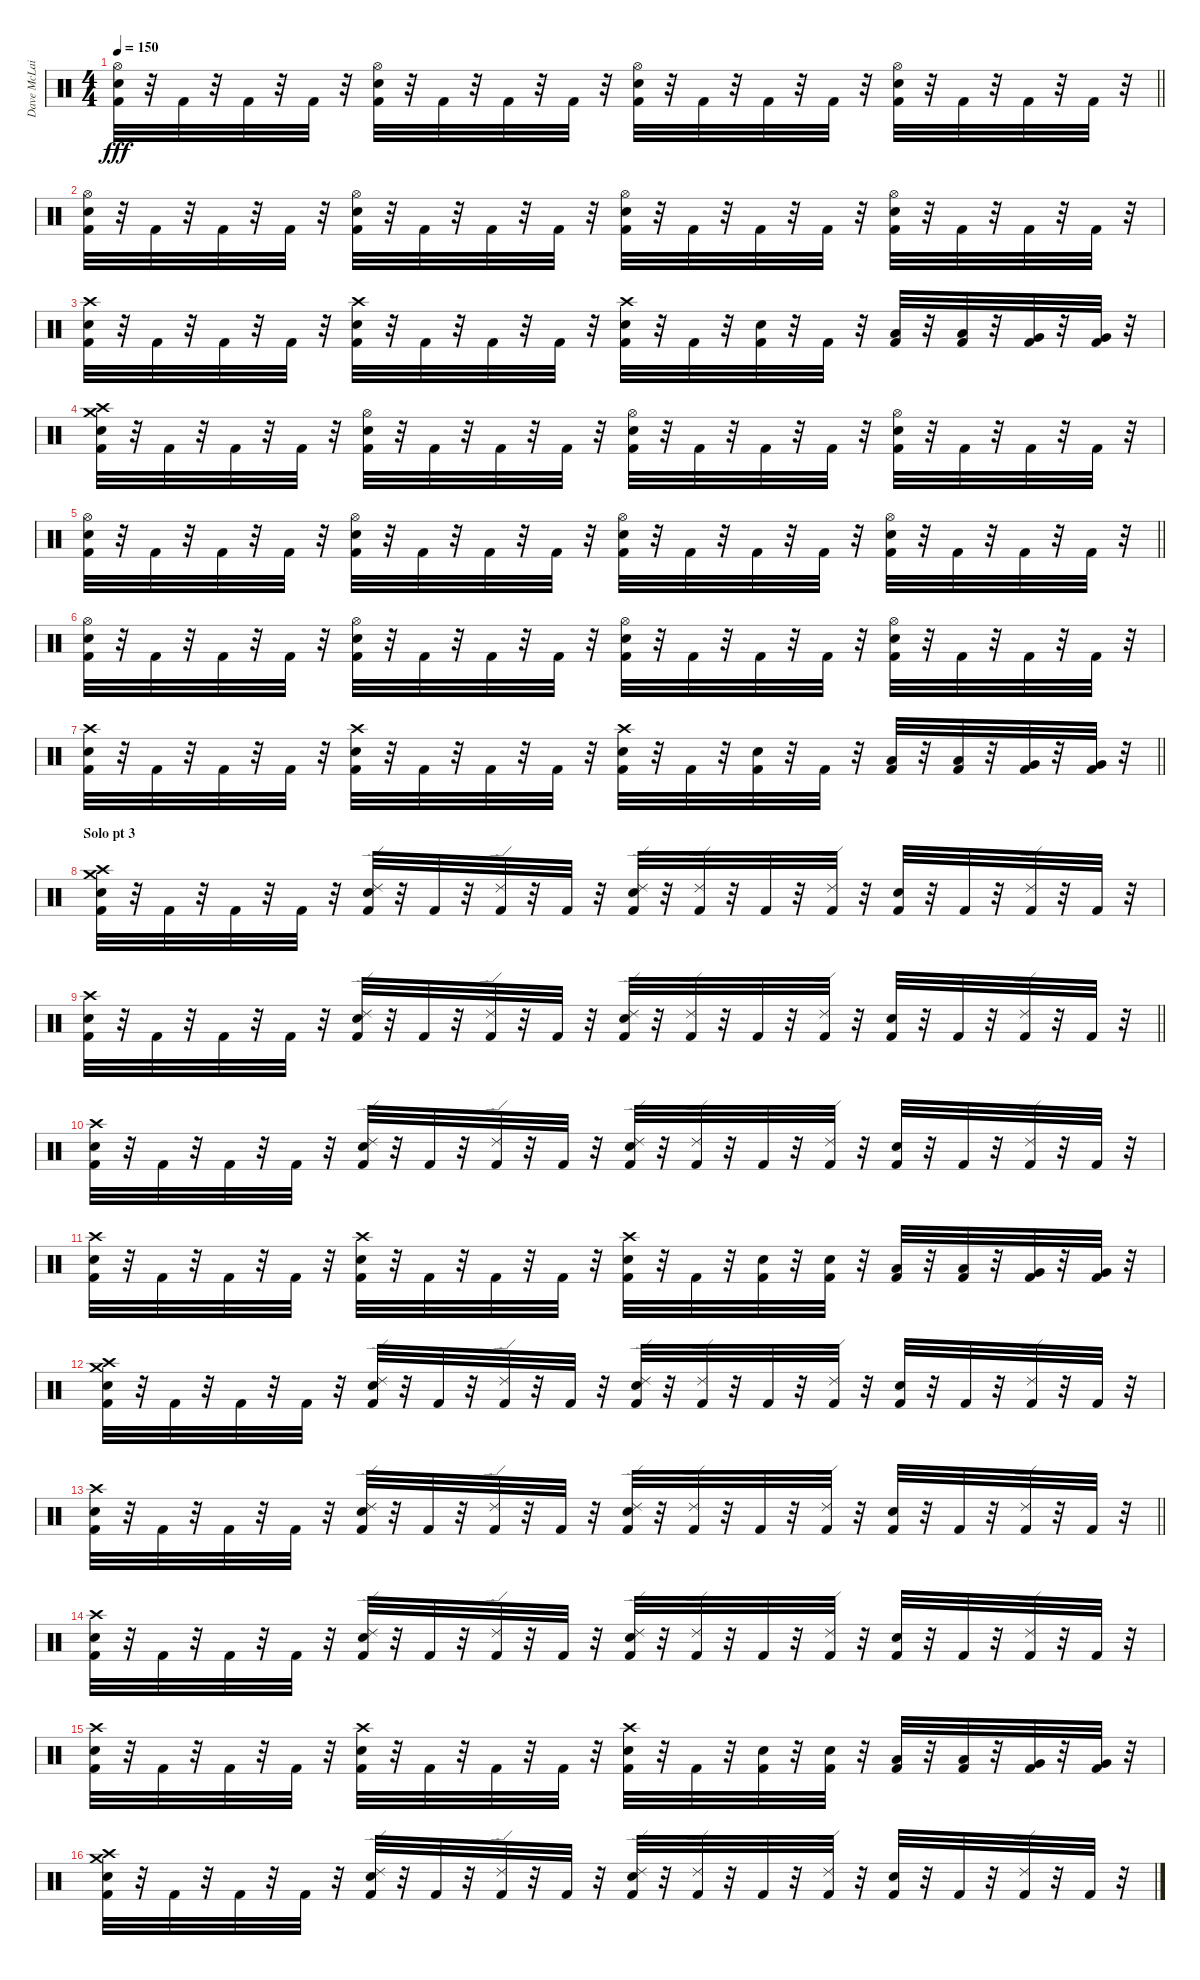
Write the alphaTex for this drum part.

\track ("Dave McLain" "Dave McLai") {instrument percussion}
\staff {score}
\articulation defaults
\ts (4 4)
\tempo 150
\clef neutral
\barLineRight lightlight
\ks c
("Hi-Hat (open)" "Snare (hit) 2" "Kick (hit) 2").32{dy fff} r.32 "Kick (hit) 2".32 r.32 "Kick (hit) 2".32 r.32 "Kick (hit) 2".32 r.32 ("Hi-Hat (open)" "Snare (hit) 2" "Kick (hit) 2").32 r.32 "Kick (hit) 2".32 r.32 "Kick (hit) 2".32 r.32 "Kick (hit) 2".32 r.32 ("Hi-Hat (open)" "Snare (hit) 2" "Kick (hit) 2").32 r.32 "Kick (hit) 2".32 r.32 "Kick (hit) 2".32 r.32 "Kick (hit) 2".32 r.32 ("Hi-Hat (open)" "Snare (hit) 2" "Kick (hit) 2").32 r.32 "Kick (hit) 2".32 r.32 "Kick (hit) 2".32 r.32 "Kick (hit) 2".32 r.32 |
("Hi-Hat (open)" "Snare (hit) 2" "Kick (hit) 2").32 r.32 "Kick (hit) 2".32 r.32 "Kick (hit) 2".32 r.32 "Kick (hit) 2".32 r.32 ("Hi-Hat (open)" "Snare (hit) 2" "Kick (hit) 2").32 r.32 "Kick (hit) 2".32 r.32 "Kick (hit) 2".32 r.32 "Kick (hit) 2".32 r.32 ("Hi-Hat (open)" "Snare (hit) 2" "Kick (hit) 2").32 r.32 "Kick (hit) 2".32 r.32 "Kick (hit) 2".32 r.32 "Kick (hit) 2".32 r.32 ("Hi-Hat (open)" "Snare (hit) 2" "Kick (hit) 2").32 r.32 "Kick (hit) 2".32 r.32 "Kick (hit) 2".32 r.32 "Kick (hit) 2".32 r.32 |
("Crash high (hit)" "Snare (hit) 2" "Kick (hit) 2").32 r.32 "Kick (hit) 2".32 r.32 "Kick (hit) 2".32 r.32 "Kick (hit) 2".32 r.32 ("Crash high (hit)" "Snare (hit) 2" "Kick (hit) 2").32 r.32 "Kick (hit) 2".32 r.32 "Kick (hit) 2".32 r.32 "Kick (hit) 2".32 r.32 ("Snare (hit) 2" "Crash high (hit)" "Kick (hit) 2").32 r.32 "Kick (hit) 2".32 r.32 ("Snare (hit) 2" "Kick (hit) 2").32 r.32 "Kick (hit) 2".32 r.32 ("Low Tom (hit)" "Kick (hit) 2").32 r.32 ("Low Tom (hit)" "Kick (hit) 2").32 r.32 ("Very Low Tom (hit)" "Kick (hit) 2").32 r.32 ("Very Low Tom (hit)" "Kick (hit) 2").32 r.32 |
("Snare (hit) 2" "Crash high (hit)" "Crash medium (hit)" "Kick (hit) 2").32 r.32 "Kick (hit) 2".32 r.32 "Kick (hit) 2".32 r.32 "Kick (hit) 2".32 r.32 ("Hi-Hat (open)" "Snare (hit) 2" "Kick (hit) 2").32 r.32 "Kick (hit) 2".32 r.32 "Kick (hit) 2".32 r.32 "Kick (hit) 2".32 r.32 ("Hi-Hat (open)" "Snare (hit) 2" "Kick (hit) 2").32 r.32 "Kick (hit) 2".32 r.32 "Kick (hit) 2".32 r.32 "Kick (hit) 2".32 r.32 ("Hi-Hat (open)" "Snare (hit) 2" "Kick (hit) 2").32 r.32 "Kick (hit) 2".32 r.32 "Kick (hit) 2".32 r.32 "Kick (hit) 2".32 r.32 |
\barLineRight lightlight
("Hi-Hat (open)" "Snare (hit) 2" "Kick (hit) 2").32 r.32 "Kick (hit) 2".32 r.32 "Kick (hit) 2".32 r.32 "Kick (hit) 2".32 r.32 ("Hi-Hat (open)" "Snare (hit) 2" "Kick (hit) 2").32 r.32 "Kick (hit) 2".32 r.32 "Kick (hit) 2".32 r.32 "Kick (hit) 2".32 r.32 ("Hi-Hat (open)" "Snare (hit) 2" "Kick (hit) 2").32 r.32 "Kick (hit) 2".32 r.32 "Kick (hit) 2".32 r.32 "Kick (hit) 2".32 r.32 ("Hi-Hat (open)" "Snare (hit) 2" "Kick (hit) 2").32 r.32 "Kick (hit) 2".32 r.32 "Kick (hit) 2".32 r.32 "Kick (hit) 2".32 r.32 |
("Hi-Hat (open)" "Snare (hit) 2" "Kick (hit) 2").32 r.32 "Kick (hit) 2".32 r.32 "Kick (hit) 2".32 r.32 "Kick (hit) 2".32 r.32 ("Hi-Hat (open)" "Snare (hit) 2" "Kick (hit) 2").32 r.32 "Kick (hit) 2".32 r.32 "Kick (hit) 2".32 r.32 "Kick (hit) 2".32 r.32 ("Hi-Hat (open)" "Snare (hit) 2" "Kick (hit) 2").32 r.32 "Kick (hit) 2".32 r.32 "Kick (hit) 2".32 r.32 "Kick (hit) 2".32 r.32 ("Hi-Hat (open)" "Snare (hit) 2" "Kick (hit) 2").32 r.32 "Kick (hit) 2".32 r.32 "Kick (hit) 2".32 r.32 "Kick (hit) 2".32 r.32 |
\barLineRight lightlight
("Crash high (hit)" "Snare (hit) 2" "Kick (hit) 2").32 r.32 "Kick (hit) 2".32 r.32 "Kick (hit) 2".32 r.32 "Kick (hit) 2".32 r.32 ("Crash high (hit)" "Snare (hit) 2" "Kick (hit) 2").32 r.32 "Kick (hit) 2".32 r.32 "Kick (hit) 2".32 r.32 "Kick (hit) 2".32 r.32 ("Snare (hit) 2" "Crash high (hit)" "Kick (hit) 2").32 r.32 "Kick (hit) 2".32 r.32 ("Snare (hit) 2" "Kick (hit) 2").32 r.32 "Kick (hit) 2".32 r.32 ("Low Tom (hit)" "Kick (hit) 2").32 r.32 ("Low Tom (hit)" "Kick (hit) 2").32 r.32 ("Very Low Tom (hit)" "Kick (hit) 2").32 r.32 ("Very Low Tom (hit)" "Kick (hit) 2").32 r.32 |
\section ("" "Solo pt 3")
("Snare (hit) 2" "Crash high (hit)" "Crash medium (hit)" "Kick (hit) 2").32 r.32 "Kick (hit) 2".32 r.32 "Kick (hit) 2".32 r.32 "Kick (hit) 2".32 r.32 ("Ride (edge) 2" "Snare (hit) 2" "Kick (hit) 2").32 r.32 "Kick (hit) 2".32 r.32 ("Ride (edge) 2" "Kick (hit) 2").32 r.32 "Kick (hit) 2".32 r.32 ("Ride (edge) 2" "Snare (hit) 2" "Kick (hit) 2").32 r.32 ("Ride (edge) 2" "Kick (hit) 2").32 r.32 "Kick (hit) 2".32 r.32 ("Ride (edge) 2" "Kick (hit) 2").32 r.32 ("Snare (hit) 2" "Kick (hit) 2").32 r.32 "Kick (hit) 2".32 r.32 ("Ride (edge) 2" "Kick (hit) 2").32 r.32 "Kick (hit) 2".32 r.32 |
\barLineRight lightlight
("Crash high (hit)" "Snare (hit) 2" "Kick (hit) 2").32 r.32 "Kick (hit) 2".32 r.32 "Kick (hit) 2".32 r.32 "Kick (hit) 2".32 r.32 ("Ride (edge) 2" "Snare (hit) 2" "Kick (hit) 2").32 r.32 "Kick (hit) 2".32 r.32 ("Ride (edge) 2" "Kick (hit) 2").32 r.32 "Kick (hit) 2".32 r.32 ("Ride (edge) 2" "Snare (hit) 2" "Kick (hit) 2").32 r.32 ("Ride (edge) 2" "Kick (hit) 2").32 r.32 "Kick (hit) 2".32 r.32 ("Ride (edge) 2" "Kick (hit) 2").32 r.32 ("Snare (hit) 2" "Kick (hit) 2").32 r.32 "Kick (hit) 2".32 r.32 ("Ride (edge) 2" "Kick (hit) 2").32 r.32 "Kick (hit) 2".32 r.32 |
\section ("" "")
("Crash high (hit)" "Snare (hit) 2" "Kick (hit) 2").32 r.32 "Kick (hit) 2".32 r.32 "Kick (hit) 2".32 r.32 "Kick (hit) 2".32 r.32 ("Ride (edge) 2" "Snare (hit) 2" "Kick (hit) 2").32 r.32 "Kick (hit) 2".32 r.32 ("Ride (edge) 2" "Kick (hit) 2").32 r.32 "Kick (hit) 2".32 r.32 ("Ride (edge) 2" "Snare (hit) 2" "Kick (hit) 2").32 r.32 ("Ride (edge) 2" "Kick (hit) 2").32 r.32 "Kick (hit) 2".32 r.32 ("Ride (edge) 2" "Kick (hit) 2").32 r.32 ("Snare (hit) 2" "Kick (hit) 2").32 r.32 "Kick (hit) 2".32 r.32 ("Ride (edge) 2" "Kick (hit) 2").32 r.32 "Kick (hit) 2".32 r.32 |
("Crash high (hit)" "Snare (hit) 2" "Kick (hit) 2").32 r.32 "Kick (hit) 2".32 r.32 "Kick (hit) 2".32 r.32 "Kick (hit) 2".32 r.32 ("Crash high (hit)" "Snare (hit) 2" "Kick (hit) 2").32 r.32 "Kick (hit) 2".32 r.32 "Kick (hit) 2".32 r.32 "Kick (hit) 2".32 r.32 ("Snare (hit) 2" "Crash high (hit)" "Kick (hit) 2").32 r.32 "Kick (hit) 2".32 r.32 ("Snare (hit) 2" "Kick (hit) 2").32 r.32 ("Snare (hit) 2" "Kick (hit) 2").32 r.32 ("Low Tom (hit)" "Kick (hit) 2").32 r.32 ("Low Tom (hit)" "Kick (hit) 2").32 r.32 ("Very Low Tom (hit)" "Kick (hit) 2").32 r.32 ("Very Low Tom (hit)" "Kick (hit) 2").32 r.32 |
("Snare (hit) 2" "Crash high (hit)" "Crash medium (hit)" "Kick (hit) 2").32 r.32 "Kick (hit) 2".32 r.32 "Kick (hit) 2".32 r.32 "Kick (hit) 2".32 r.32 ("Ride (edge) 2" "Snare (hit) 2" "Kick (hit) 2").32 r.32 "Kick (hit) 2".32 r.32 ("Ride (edge) 2" "Kick (hit) 2").32 r.32 "Kick (hit) 2".32 r.32 ("Ride (edge) 2" "Snare (hit) 2" "Kick (hit) 2").32 r.32 ("Ride (edge) 2" "Kick (hit) 2").32 r.32 "Kick (hit) 2".32 r.32 ("Ride (edge) 2" "Kick (hit) 2").32 r.32 ("Snare (hit) 2" "Kick (hit) 2").32 r.32 "Kick (hit) 2".32 r.32 ("Ride (edge) 2" "Kick (hit) 2").32 r.32 "Kick (hit) 2".32 r.32 |
\barLineRight lightlight
("Crash high (hit)" "Snare (hit) 2" "Kick (hit) 2").32 r.32 "Kick (hit) 2".32 r.32 "Kick (hit) 2".32 r.32 "Kick (hit) 2".32 r.32 ("Ride (edge) 2" "Snare (hit) 2" "Kick (hit) 2").32 r.32 "Kick (hit) 2".32 r.32 ("Ride (edge) 2" "Kick (hit) 2").32 r.32 "Kick (hit) 2".32 r.32 ("Ride (edge) 2" "Snare (hit) 2" "Kick (hit) 2").32 r.32 ("Ride (edge) 2" "Kick (hit) 2").32 r.32 "Kick (hit) 2".32 r.32 ("Ride (edge) 2" "Kick (hit) 2").32 r.32 ("Snare (hit) 2" "Kick (hit) 2").32 r.32 "Kick (hit) 2".32 r.32 ("Ride (edge) 2" "Kick (hit) 2").32 r.32 "Kick (hit) 2".32 r.32 |
("Crash high (hit)" "Snare (hit) 2" "Kick (hit) 2").32 r.32 "Kick (hit) 2".32 r.32 "Kick (hit) 2".32 r.32 "Kick (hit) 2".32 r.32 ("Ride (edge) 2" "Snare (hit) 2" "Kick (hit) 2").32 r.32 "Kick (hit) 2".32 r.32 ("Ride (edge) 2" "Kick (hit) 2").32 r.32 "Kick (hit) 2".32 r.32 ("Ride (edge) 2" "Snare (hit) 2" "Kick (hit) 2").32 r.32 ("Ride (edge) 2" "Kick (hit) 2").32 r.32 "Kick (hit) 2".32 r.32 ("Ride (edge) 2" "Kick (hit) 2").32 r.32 ("Snare (hit) 2" "Kick (hit) 2").32 r.32 "Kick (hit) 2".32 r.32 ("Ride (edge) 2" "Kick (hit) 2").32 r.32 "Kick (hit) 2".32 r.32 |
("Crash high (hit)" "Snare (hit) 2" "Kick (hit) 2").32 r.32 "Kick (hit) 2".32 r.32 "Kick (hit) 2".32 r.32 "Kick (hit) 2".32 r.32 ("Crash high (hit)" "Snare (hit) 2" "Kick (hit) 2").32 r.32 "Kick (hit) 2".32 r.32 "Kick (hit) 2".32 r.32 "Kick (hit) 2".32 r.32 ("Snare (hit) 2" "Crash high (hit)" "Kick (hit) 2").32 r.32 "Kick (hit) 2".32 r.32 ("Snare (hit) 2" "Kick (hit) 2").32 r.32 ("Snare (hit) 2" "Kick (hit) 2").32 r.32 ("Low Tom (hit)" "Kick (hit) 2").32 r.32 ("Low Tom (hit)" "Kick (hit) 2").32 r.32 ("Very Low Tom (hit)" "Kick (hit) 2").32 r.32 ("Very Low Tom (hit)" "Kick (hit) 2").32 r.32 |
("Snare (hit) 2" "Crash high (hit)" "Crash medium (hit)" "Kick (hit) 2").32 r.32 "Kick (hit) 2".32 r.32 "Kick (hit) 2".32 r.32 "Kick (hit) 2".32 r.32 ("Ride (edge) 2" "Snare (hit) 2" "Kick (hit) 2").32 r.32 "Kick (hit) 2".32 r.32 ("Ride (edge) 2" "Kick (hit) 2").32 r.32 "Kick (hit) 2".32 r.32 ("Ride (edge) 2" "Snare (hit) 2" "Kick (hit) 2").32 r.32 ("Ride (edge) 2" "Kick (hit) 2").32 r.32 "Kick (hit) 2".32 r.32 ("Ride (edge) 2" "Kick (hit) 2").32 r.32 ("Snare (hit) 2" "Kick (hit) 2").32 r.32 "Kick (hit) 2".32 r.32 ("Ride (edge) 2" "Kick (hit) 2").32 r.32 "Kick (hit) 2".32 r.32
